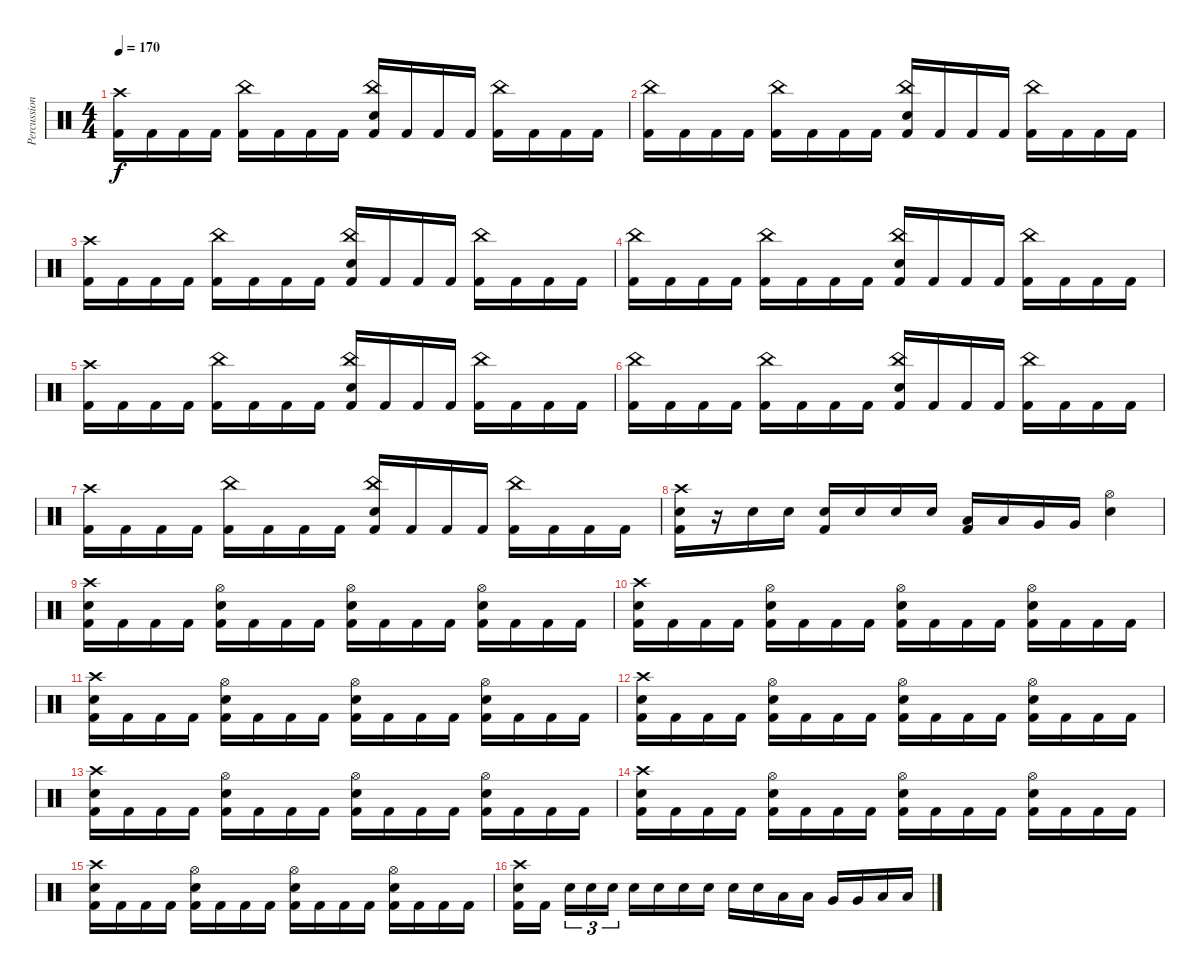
\track ("Percussion" "Percussion") {instrument percussion}
\staff {score}
\articulation defaults
\ts (4 4)
\tempo 170
\clef neutral
\ks c
("Crash high (hit)" "Kick (hit) 2").16{dy f} "Kick (hit) 2".16 "Kick (hit) 2".16 "Kick (hit) 2".16 ("China (hit)" "Kick (hit) 2").16 "Kick (hit) 2".16 "Kick (hit) 2".16 "Kick (hit) 2".16 ("China (hit)" "Electric Snare (hit)" "Kick (hit) 2").16 "Kick (hit) 2".16 "Kick (hit) 2".16 "Kick (hit) 2".16 ("China (hit)" "Kick (hit) 2").16 "Kick (hit) 2".16 "Kick (hit) 2".16 "Kick (hit) 2".16 |
("China (hit)" "Kick (hit) 2").16 "Kick (hit) 2".16 "Kick (hit) 2".16 "Kick (hit) 2".16 ("China (hit)" "Kick (hit) 2").16 "Kick (hit) 2".16 "Kick (hit) 2".16 "Kick (hit) 2".16 ("China (hit)" "Electric Snare (hit)" "Kick (hit) 2").16 "Kick (hit) 2".16 "Kick (hit) 2".16 "Kick (hit) 2".16 ("China (hit)" "Kick (hit) 2").16 "Kick (hit) 2".16 "Kick (hit) 2".16 "Kick (hit) 2".16 |
("Crash high (hit)" "Kick (hit) 2").16 "Kick (hit) 2".16 "Kick (hit) 2".16 "Kick (hit) 2".16 ("China (hit)" "Kick (hit) 2").16 "Kick (hit) 2".16 "Kick (hit) 2".16 "Kick (hit) 2".16 ("China (hit)" "Electric Snare (hit)" "Kick (hit) 2").16 "Kick (hit) 2".16 "Kick (hit) 2".16 "Kick (hit) 2".16 ("China (hit)" "Kick (hit) 2").16 "Kick (hit) 2".16 "Kick (hit) 2".16 "Kick (hit) 2".16 |
("China (hit)" "Kick (hit) 2").16 "Kick (hit) 2".16 "Kick (hit) 2".16 "Kick (hit) 2".16 ("China (hit)" "Kick (hit) 2").16 "Kick (hit) 2".16 "Kick (hit) 2".16 "Kick (hit) 2".16 ("China (hit)" "Electric Snare (hit)" "Kick (hit) 2").16 "Kick (hit) 2".16 "Kick (hit) 2".16 "Kick (hit) 2".16 ("China (hit)" "Kick (hit) 2").16 "Kick (hit) 2".16 "Kick (hit) 2".16 "Kick (hit) 2".16 |
("Crash high (hit)" "Kick (hit) 2").16 "Kick (hit) 2".16 "Kick (hit) 2".16 "Kick (hit) 2".16 ("China (hit)" "Kick (hit) 2").16 "Kick (hit) 2".16 "Kick (hit) 2".16 "Kick (hit) 2".16 ("China (hit)" "Electric Snare (hit)" "Kick (hit) 2").16 "Kick (hit) 2".16 "Kick (hit) 2".16 "Kick (hit) 2".16 ("China (hit)" "Kick (hit) 2").16 "Kick (hit) 2".16 "Kick (hit) 2".16 "Kick (hit) 2".16 |
("China (hit)" "Kick (hit) 2").16 "Kick (hit) 2".16 "Kick (hit) 2".16 "Kick (hit) 2".16 ("China (hit)" "Kick (hit) 2").16 "Kick (hit) 2".16 "Kick (hit) 2".16 "Kick (hit) 2".16 ("China (hit)" "Electric Snare (hit)" "Kick (hit) 2").16 "Kick (hit) 2".16 "Kick (hit) 2".16 "Kick (hit) 2".16 ("China (hit)" "Kick (hit) 2").16 "Kick (hit) 2".16 "Kick (hit) 2".16 "Kick (hit) 2".16 |
("Crash high (hit)" "Kick (hit) 2").16 "Kick (hit) 2".16 "Kick (hit) 2".16 "Kick (hit) 2".16 ("China (hit)" "Kick (hit) 2").16 "Kick (hit) 2".16 "Kick (hit) 2".16 "Kick (hit) 2".16 ("China (hit)" "Electric Snare (hit)" "Kick (hit) 2").16 "Kick (hit) 2".16 "Kick (hit) 2".16 "Kick (hit) 2".16 ("China (hit)" "Kick (hit) 2").16 "Kick (hit) 2".16 "Kick (hit) 2".16 "Kick (hit) 2".16 |
("Crash high (hit)" "Electric Snare (hit)" "Kick (hit) 2").16 r.16 "Electric Snare (hit)".16 "Electric Snare (hit)".16 ("Electric Snare (hit)" "Kick (hit) 2").16 "Electric Snare (hit)".16 "Electric Snare (hit)".16 "Electric Snare (hit)".16 ("Low Tom (hit)" "Kick (hit) 2").16 "Low Tom (hit)".16 "Very Low Tom (hit)".16 "Very Low Tom (hit)".16 ("Hi-Hat (open)" "Electric Snare (hit)").4 |
("Crash high (hit)" "Electric Snare (hit)" "Kick (hit) 2").16 "Kick (hit) 2".16 "Kick (hit) 2".16 "Kick (hit) 2".16 ("Hi-Hat (open)" "Electric Snare (hit)" "Kick (hit) 2").16 "Kick (hit) 2".16 "Kick (hit) 2".16 "Kick (hit) 2".16 ("Hi-Hat (open)" "Electric Snare (hit)" "Kick (hit) 2").16 "Kick (hit) 2".16 "Kick (hit) 2".16 "Kick (hit) 2".16 ("Hi-Hat (open)" "Electric Snare (hit)" "Kick (hit) 2").16 "Kick (hit) 2".16 "Kick (hit) 2".16 "Kick (hit) 2".16 |
("Crash high (hit)" "Electric Snare (hit)" "Kick (hit) 2").16 "Kick (hit) 2".16 "Kick (hit) 2".16 "Kick (hit) 2".16 ("Hi-Hat (open)" "Electric Snare (hit)" "Kick (hit) 2").16 "Kick (hit) 2".16 "Kick (hit) 2".16 "Kick (hit) 2".16 ("Hi-Hat (open)" "Electric Snare (hit)" "Kick (hit) 2").16 "Kick (hit) 2".16 "Kick (hit) 2".16 "Kick (hit) 2".16 ("Hi-Hat (open)" "Electric Snare (hit)" "Kick (hit) 2").16 "Kick (hit) 2".16 "Kick (hit) 2".16 "Kick (hit) 2".16 |
("Crash high (hit)" "Electric Snare (hit)" "Kick (hit) 2").16 "Kick (hit) 2".16 "Kick (hit) 2".16 "Kick (hit) 2".16 ("Hi-Hat (open)" "Electric Snare (hit)" "Kick (hit) 2").16 "Kick (hit) 2".16 "Kick (hit) 2".16 "Kick (hit) 2".16 ("Hi-Hat (open)" "Electric Snare (hit)" "Kick (hit) 2").16 "Kick (hit) 2".16 "Kick (hit) 2".16 "Kick (hit) 2".16 ("Hi-Hat (open)" "Electric Snare (hit)" "Kick (hit) 2").16 "Kick (hit) 2".16 "Kick (hit) 2".16 "Kick (hit) 2".16 |
("Crash high (hit)" "Electric Snare (hit)" "Kick (hit) 2").16 "Kick (hit) 2".16 "Kick (hit) 2".16 "Kick (hit) 2".16 ("Hi-Hat (open)" "Electric Snare (hit)" "Kick (hit) 2").16 "Kick (hit) 2".16 "Kick (hit) 2".16 "Kick (hit) 2".16 ("Hi-Hat (open)" "Electric Snare (hit)" "Kick (hit) 2").16 "Kick (hit) 2".16 "Kick (hit) 2".16 "Kick (hit) 2".16 ("Hi-Hat (open)" "Electric Snare (hit)" "Kick (hit) 2").16 "Kick (hit) 2".16 "Kick (hit) 2".16 "Kick (hit) 2".16 |
("Crash high (hit)" "Electric Snare (hit)" "Kick (hit) 2").16 "Kick (hit) 2".16 "Kick (hit) 2".16 "Kick (hit) 2".16 ("Hi-Hat (open)" "Electric Snare (hit)" "Kick (hit) 2").16 "Kick (hit) 2".16 "Kick (hit) 2".16 "Kick (hit) 2".16 ("Hi-Hat (open)" "Electric Snare (hit)" "Kick (hit) 2").16 "Kick (hit) 2".16 "Kick (hit) 2".16 "Kick (hit) 2".16 ("Hi-Hat (open)" "Electric Snare (hit)" "Kick (hit) 2").16 "Kick (hit) 2".16 "Kick (hit) 2".16 "Kick (hit) 2".16 |
("Crash high (hit)" "Electric Snare (hit)" "Kick (hit) 2").16 "Kick (hit) 2".16 "Kick (hit) 2".16 "Kick (hit) 2".16 ("Hi-Hat (open)" "Electric Snare (hit)" "Kick (hit) 2").16 "Kick (hit) 2".16 "Kick (hit) 2".16 "Kick (hit) 2".16 ("Hi-Hat (open)" "Electric Snare (hit)" "Kick (hit) 2").16 "Kick (hit) 2".16 "Kick (hit) 2".16 "Kick (hit) 2".16 ("Hi-Hat (open)" "Electric Snare (hit)" "Kick (hit) 2").16 "Kick (hit) 2".16 "Kick (hit) 2".16 "Kick (hit) 2".16 |
("Crash high (hit)" "Electric Snare (hit)" "Kick (hit) 2").16 "Kick (hit) 2".16 "Kick (hit) 2".16 "Kick (hit) 2".16 ("Hi-Hat (open)" "Electric Snare (hit)" "Kick (hit) 2").16 "Kick (hit) 2".16 "Kick (hit) 2".16 "Kick (hit) 2".16 ("Hi-Hat (open)" "Electric Snare (hit)" "Kick (hit) 2").16 "Kick (hit) 2".16 "Kick (hit) 2".16 "Kick (hit) 2".16 ("Hi-Hat (open)" "Electric Snare (hit)" "Kick (hit) 2").16 "Kick (hit) 2".16 "Kick (hit) 2".16 "Kick (hit) 2".16 |
("Crash high (hit)" "Electric Snare (hit)" "Kick (hit) 2").16 "Kick (hit) 2".16{beam splitsecondary} "Electric Snare (hit)".16{tu (3 2)} "Electric Snare (hit)".16{tu (3 2)} "Electric Snare (hit)".16{tu (3 2)} "Electric Snare (hit)".16 "Electric Snare (hit)".16 "Electric Snare (hit)".16 "Electric Snare (hit)".16 "Electric Snare (hit)".16 "Electric Snare (hit)".16 "Low Tom (hit)".16 "Low Tom (hit)".16 "Very Low Tom (hit)".16 "Very Low Tom (hit)".16 "Low Floor Tom (hit)".16 "Low Floor Tom (hit)".16
